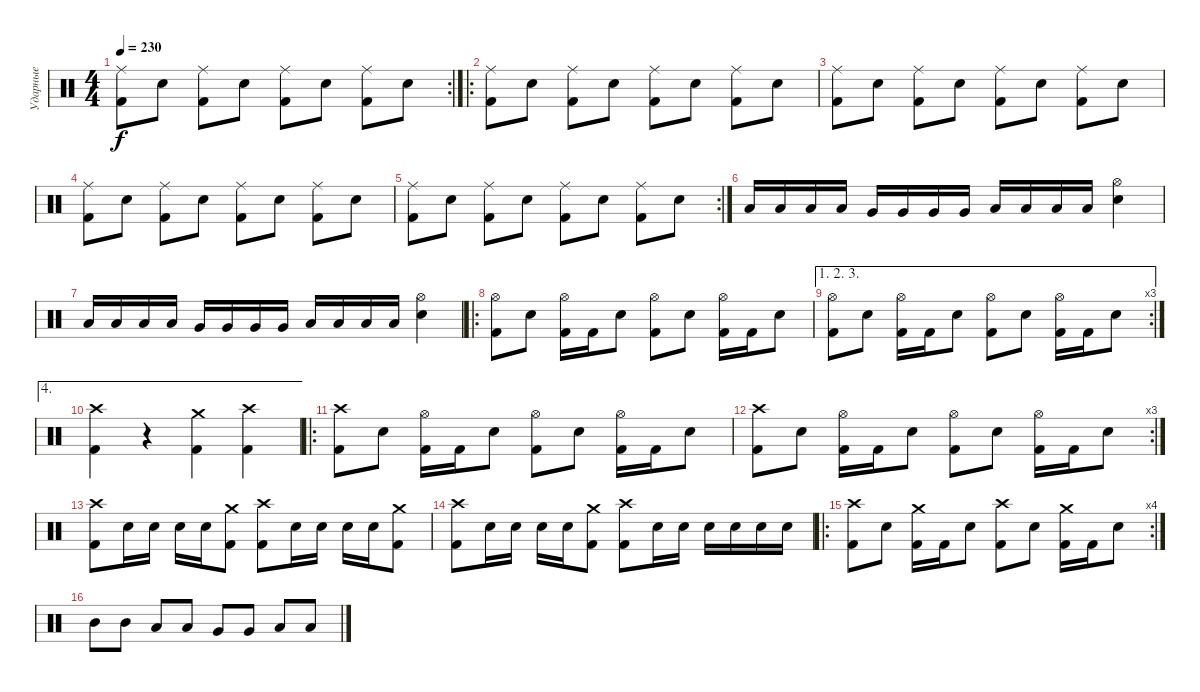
\track ("Ударные" "Ударные") {instrument percussion}
\staff {score}
\articulation defaults
\rc 2
\ts (4 4)
\tempo 230
\clef neutral
\ks c
("Ride (middle)" "Kick (hit) 2").8{dy f} "Snare (hit) 2".8 ("Ride (middle)" "Kick (hit) 2").8 "Snare (hit) 2".8 ("Ride (middle)" "Kick (hit) 2").8 "Snare (hit) 2".8 ("Ride (middle)" "Kick (hit) 2").8 "Snare (hit) 2".8 |
\ro
("Ride (middle)" "Kick (hit) 2").8 "Snare (hit) 2".8 ("Ride (middle)" "Kick (hit) 2").8 "Snare (hit) 2".8 ("Ride (middle)" "Kick (hit) 2").8 "Snare (hit) 2".8 ("Ride (middle)" "Kick (hit) 2").8 "Snare (hit) 2".8 |
("Ride (middle)" "Kick (hit) 2").8 "Snare (hit) 2".8 ("Ride (middle)" "Kick (hit) 2").8 "Snare (hit) 2".8 ("Ride (middle)" "Kick (hit) 2").8 "Snare (hit) 2".8 ("Ride (middle)" "Kick (hit) 2").8 "Snare (hit) 2".8 |
("Ride (middle)" "Kick (hit) 2").8 "Snare (hit) 2".8 ("Ride (middle)" "Kick (hit) 2").8 "Snare (hit) 2".8 ("Ride (middle)" "Kick (hit) 2").8 "Snare (hit) 2".8 ("Ride (middle)" "Kick (hit) 2").8 "Snare (hit) 2".8 |
\rc 2
("Ride (middle)" "Kick (hit) 2").8 "Snare (hit) 2".8 ("Ride (middle)" "Kick (hit) 2").8 "Snare (hit) 2".8 ("Ride (middle)" "Kick (hit) 2").8 "Snare (hit) 2".8 ("Ride (middle)" "Kick (hit) 2").8 "Snare (hit) 2".8 |
"Low Tom (hit)".16 "Low Tom (hit)".16 "Low Tom (hit)".16 "Low Tom (hit)".16 "Very Low Tom (hit)".16 "Very Low Tom (hit)".16 "Very Low Tom (hit)".16 "Very Low Tom (hit)".16 "Low Floor Tom (hit)".16 "Low Floor Tom (hit)".16 "Low Floor Tom (hit)".16 "Low Floor Tom (hit)".16 ("Hi-Hat (open)" "Snare (hit) 2").4 |
"Low Tom (hit)".16 "Low Tom (hit)".16 "Low Tom (hit)".16 "Low Tom (hit)".16 "Very Low Tom (hit)".16 "Very Low Tom (hit)".16 "Very Low Tom (hit)".16 "Very Low Tom (hit)".16 "Low Floor Tom (hit)".16 "Low Floor Tom (hit)".16 "Low Floor Tom (hit)".16 "Low Floor Tom (hit)".16 ("Hi-Hat (open)" "Snare (hit) 2").4 |
\ro
("Hi-Hat (open)" "Kick (hit) 2").8 "Snare (hit) 2".8 ("Hi-Hat (open)" "Kick (hit) 2").16 "Kick (hit) 2".16 "Snare (hit) 2".8 ("Hi-Hat (open)" "Kick (hit) 2").8 "Snare (hit) 2".8 ("Hi-Hat (open)" "Kick (hit) 2").16 "Kick (hit) 2".16 "Snare (hit) 2".8 |
\ae (1 2 3)
\rc 3
("Hi-Hat (open)" "Kick (hit) 2").8 "Snare (hit) 2".8 ("Hi-Hat (open)" "Kick (hit) 2").16 "Kick (hit) 2".16 "Snare (hit) 2".8 ("Hi-Hat (open)" "Kick (hit) 2").8 "Snare (hit) 2".8 ("Hi-Hat (open)" "Kick (hit) 2").16 "Kick (hit) 2".16 "Snare (hit) 2".8 |
\ae 4
("Crash high (hit)" "Kick (hit) 2").4 r.4 ("Crash medium (hit)" "Kick (hit) 2").4 ("Crash high (hit)" "Kick (hit) 2").4 |
\ro
("Crash high (hit)" "Kick (hit) 2").8 "Snare (hit) 2".8 ("Hi-Hat (open)" "Kick (hit) 2").16 "Kick (hit) 2".16 "Snare (hit) 2".8 ("Hi-Hat (open)" "Kick (hit) 2").8 "Snare (hit) 2".8 ("Hi-Hat (open)" "Kick (hit) 2").16 "Kick (hit) 2".16 "Snare (hit) 2".8 |
\rc 3
("Crash high (hit)" "Kick (hit) 2").8 "Snare (hit) 2".8 ("Hi-Hat (open)" "Kick (hit) 2").16 "Kick (hit) 2".16 "Snare (hit) 2".8 ("Hi-Hat (open)" "Kick (hit) 2").8 "Snare (hit) 2".8 ("Hi-Hat (open)" "Kick (hit) 2").16 "Kick (hit) 2".16 "Snare (hit) 2".8 |
("Crash high (hit)" "Kick (hit) 2").8 "Snare (hit) 2".16 "Snare (hit) 2".16 "Snare (hit) 2".16 "Snare (hit) 2".16 ("Crash medium (hit)" "Kick (hit) 2").8 ("Crash high (hit)" "Kick (hit) 2").8 "Snare (hit) 2".16 "Snare (hit) 2".16 "Snare (hit) 2".16 "Snare (hit) 2".16 ("Crash medium (hit)" "Kick (hit) 2").8 |
("Crash high (hit)" "Kick (hit) 2").8 "Snare (hit) 2".16 "Snare (hit) 2".16 "Snare (hit) 2".16 "Snare (hit) 2".16 ("Crash medium (hit)" "Kick (hit) 2").8 ("Crash high (hit)" "Kick (hit) 2").8 "Snare (hit) 2".16 "Snare (hit) 2".16 "Snare (hit) 2".16 "Snare (hit) 2".16 "Snare (hit) 2".16 "Snare (hit) 2".16 |
\ro
\rc 4
("Crash high (hit)" "Kick (hit) 2").8 "Snare (hit) 2".8 ("Crash medium (hit)" "Kick (hit) 2").16 "Kick (hit) 2".16 "Snare (hit) 2".8 ("Crash high (hit)" "Kick (hit) 2").8 "Snare (hit) 2".8 ("Crash medium (hit)" "Kick (hit) 2").16 "Kick (hit) 2".16 "Snare (hit) 2".8 |
"Mid Tom (hit)".8 "Mid Tom (hit)".8 "Low Tom (hit)".8 "Low Tom (hit)".8 "Very Low Tom (hit)".8 "Very Low Tom (hit)".8 "Low Floor Tom (hit)".8 "Low Floor Tom (hit)".8
